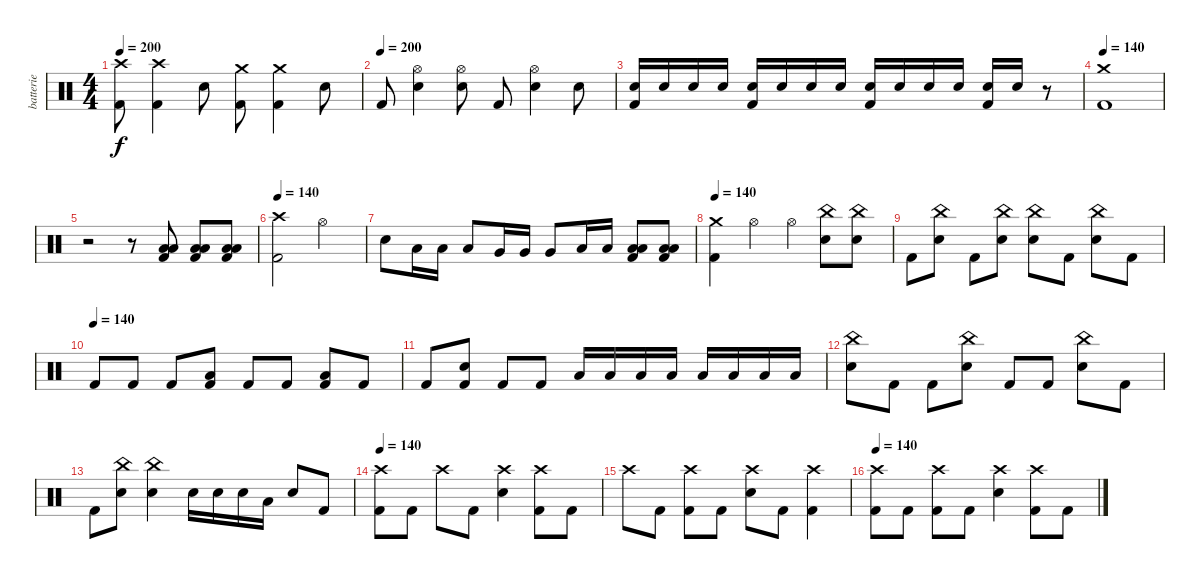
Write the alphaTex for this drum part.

\track ("batterie" "batterie") {instrument percussion}
\staff {score}
\articulation defaults
\ts (4 4)
\tempo 200
\clef neutral
\ks c
("Crash high (hit)" "Kick (hit) 2").8{dy f} ("Crash high (hit)" "Kick (hit) 2").4 "Electric Snare (hit)".8 ("Crash medium (hit)" "Kick (hit) 2").8 ("Crash medium (hit)" "Kick (hit) 2").4 "Electric Snare (hit)".8 |
\tempo (200)
"Kick (hit) 2".8 ("Hi-Hat (open)" "Electric Snare (hit)").4 ("Hi-Hat (open)" "Electric Snare (hit)").8 "Kick (hit) 2".8 ("Hi-Hat (open)" "Electric Snare (hit)").4 "Electric Snare (hit)".8 |
("Electric Snare (hit)" "Kick (hit) 2").16 "Electric Snare (hit)".16 "Electric Snare (hit)".16 "Electric Snare (hit)".16 ("Electric Snare (hit)" "Kick (hit) 2").16 "Electric Snare (hit)".16 "Electric Snare (hit)".16 "Electric Snare (hit)".16 ("Electric Snare (hit)" "Kick (hit) 2").16 "Electric Snare (hit)".16 "Electric Snare (hit)".16 "Electric Snare (hit)".16 ("Electric Snare (hit)" "Kick (hit) 2").16 "Electric Snare (hit)".16 r.8 |
\tempo 140
("Crash medium (hit)" "Kick (hit) 2").1 |
r.2 r.8 ("Low Tom (hit)" "Low Floor Tom (hit)" "Kick (hit) 2").8 ("Low Tom (hit)" "Low Floor Tom (hit)" "Kick (hit) 2").8 ("Low Tom (hit)" "Low Floor Tom (hit)" "Kick (hit) 2").8 |
\tempo 140
("Crash high (hit)" "Kick (hit) 2").2 "Hi-Hat (open)".2 |
"Electric Snare (hit)".8 "Low Tom (hit)".16 "Low Tom (hit)".16 "Low Tom (hit)".8 "Very Low Tom (hit)".16 "Very Low Tom (hit)".16 "Very Low Tom (hit)".8 "Low Floor Tom (hit)".16 "Low Floor Tom (hit)".16 ("Low Floor Tom (hit)" "Low Tom (hit)" "Kick (hit) 2").8 ("Kick (hit) 2" "Low Tom (hit)" "Low Floor Tom (hit)").8 |
\tempo 140
("Crash medium (hit)" "Kick (hit) 2").4 "Hi-Hat (open)".4 "Hi-Hat (open)".4 ("China (hit)" "Electric Snare (hit)").8 ("China (hit)" "Electric Snare (hit)").8 |
"Kick (hit) 2".8 ("China (hit)" "Electric Snare (hit)").8 "Kick (hit) 2".8 ("China (hit)" "Electric Snare (hit)").8 ("China (hit)" "Electric Snare (hit)").8 "Kick (hit) 2".8 ("China (hit)" "Electric Snare (hit)").8 "Kick (hit) 2".8 |
\tempo (140)
"Kick (hit) 2".8 "Kick (hit) 2".8 "Kick (hit) 2".8 ("Low Tom (hit)" "Kick (hit) 2").8 "Kick (hit) 2".8 "Kick (hit) 2".8 ("Low Floor Tom (hit)" "Kick (hit) 2").8 "Kick (hit) 2".8 |
"Kick (hit) 2".8 ("Electric Snare (hit)" "Kick (hit) 2").8 "Kick (hit) 2".8 "Kick (hit) 2".8 "Low Tom (hit)".16 "Low Tom (hit)".16 "Low Tom (hit)".16 "Low Tom (hit)".16 "Low Floor Tom (hit)".16 "Low Floor Tom (hit)".16 "Low Floor Tom (hit)".16 "Low Floor Tom (hit)".16 |
("China (hit)" "Electric Snare (hit)").8 "Kick (hit) 2".8 "Kick (hit) 2".8 ("China (hit)" "Electric Snare (hit)").8 "Kick (hit) 2".8 "Kick (hit) 2".8 ("China (hit)" "Electric Snare (hit)").8 "Kick (hit) 2".8 |
"Kick (hit) 2".8 ("China (hit)" "Electric Snare (hit)").8 ("China (hit)" "Electric Snare (hit)").4 "Electric Snare (hit)".16 "Electric Snare (hit)".16 "Electric Snare (hit)".16 "Low Tom (hit)".16 "Electric Snare (hit)".8 "Kick (hit) 2".8 |
\tempo 140
("Crash high (hit)" "Kick (hit) 2").8 "Kick (hit) 2".8 "Crash high (hit)".8 "Kick (hit) 2".8 ("Crash high (hit)" "Electric Snare (hit)").4 ("Crash high (hit)" "Kick (hit) 2").8 "Kick (hit) 2".8 |
"Crash high (hit)".8 "Kick (hit) 2".8 ("Crash high (hit)" "Kick (hit) 2").8 "Kick (hit) 2".8 ("Crash high (hit)" "Electric Snare (hit)").8 "Kick (hit) 2".8 ("Crash high (hit)" "Kick (hit) 2").4 |
\tempo 140
("Crash high (hit)" "Kick (hit) 2").8 "Kick (hit) 2".8 ("Crash high (hit)" "Kick (hit) 2").8 "Kick (hit) 2".8 ("Crash high (hit)" "Electric Snare (hit)").4 ("Crash high (hit)" "Kick (hit) 2").8 "Kick (hit) 2".8
